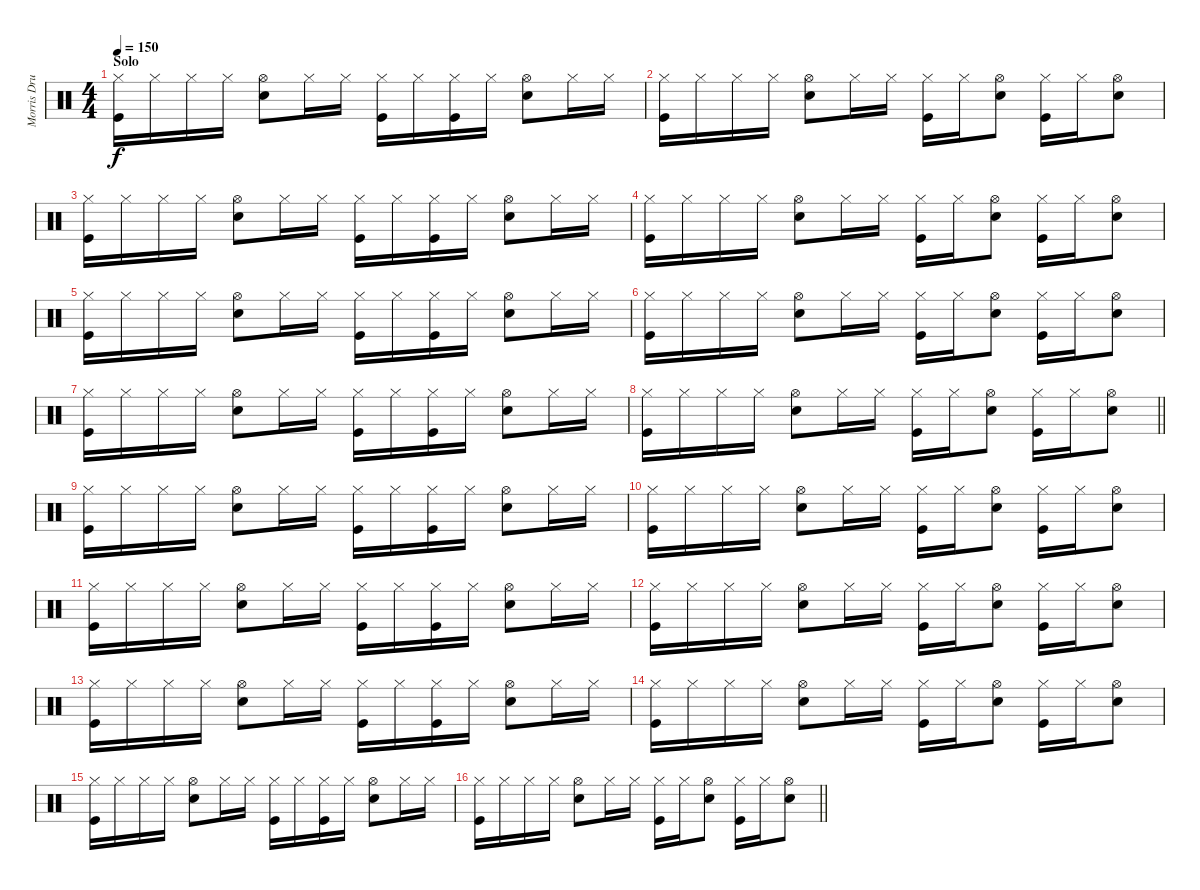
\track ("Morris Drums" "Morris Dru") {instrument percussion}
\staff {score}
\articulation defaults
\ts (4 4)
\section ("" "Solo")
\tempo 150
\clef neutral
\ks c
("Hi-Hat (closed)" "Kick (hit)").16{dy f} "Hi-Hat (closed)".16 "Hi-Hat (closed)".16 "Hi-Hat (closed)".16 ("Hi-Hat (open)" "Snare (hit) 2").8 "Hi-Hat (closed)".16 "Hi-Hat (closed)".16 ("Hi-Hat (closed)" "Kick (hit)").16 "Hi-Hat (closed)".16 ("Hi-Hat (closed)" "Kick (hit)").16 "Hi-Hat (closed)".16 ("Hi-Hat (open)" "Snare (hit) 2").8 "Hi-Hat (closed)".16 "Hi-Hat (closed)".16 |
("Hi-Hat (closed)" "Kick (hit)").16 "Hi-Hat (closed)".16 "Hi-Hat (closed)".16 "Hi-Hat (closed)".16 ("Hi-Hat (open)" "Snare (hit) 2").8 "Hi-Hat (closed)".16 "Hi-Hat (closed)".16 ("Hi-Hat (closed)" "Kick (hit)").16 "Hi-Hat (closed)".16 ("Hi-Hat (open)" "Snare (hit) 2").8 ("Hi-Hat (closed)" "Kick (hit)").16 "Hi-Hat (closed)".16 ("Hi-Hat (open)" "Snare (hit) 2").8 |
("Hi-Hat (closed)" "Kick (hit)").16 "Hi-Hat (closed)".16 "Hi-Hat (closed)".16 "Hi-Hat (closed)".16 ("Hi-Hat (open)" "Snare (hit) 2").8 "Hi-Hat (closed)".16 "Hi-Hat (closed)".16 ("Hi-Hat (closed)" "Kick (hit)").16 "Hi-Hat (closed)".16 ("Hi-Hat (closed)" "Kick (hit)").16 "Hi-Hat (closed)".16 ("Hi-Hat (open)" "Snare (hit) 2").8 "Hi-Hat (closed)".16 "Hi-Hat (closed)".16 |
("Hi-Hat (closed)" "Kick (hit)").16 "Hi-Hat (closed)".16 "Hi-Hat (closed)".16 "Hi-Hat (closed)".16 ("Hi-Hat (open)" "Snare (hit) 2").8 "Hi-Hat (closed)".16 "Hi-Hat (closed)".16 ("Hi-Hat (closed)" "Kick (hit)").16 "Hi-Hat (closed)".16 ("Hi-Hat (open)" "Snare (hit) 2").8 ("Hi-Hat (closed)" "Kick (hit)").16 "Hi-Hat (closed)".16 ("Hi-Hat (open)" "Snare (hit) 2").8 |
("Hi-Hat (closed)" "Kick (hit)").16 "Hi-Hat (closed)".16 "Hi-Hat (closed)".16 "Hi-Hat (closed)".16 ("Hi-Hat (open)" "Snare (hit) 2").8 "Hi-Hat (closed)".16 "Hi-Hat (closed)".16 ("Hi-Hat (closed)" "Kick (hit)").16 "Hi-Hat (closed)".16 ("Hi-Hat (closed)" "Kick (hit)").16 "Hi-Hat (closed)".16 ("Hi-Hat (open)" "Snare (hit) 2").8 "Hi-Hat (closed)".16 "Hi-Hat (closed)".16 |
("Hi-Hat (closed)" "Kick (hit)").16 "Hi-Hat (closed)".16 "Hi-Hat (closed)".16 "Hi-Hat (closed)".16 ("Hi-Hat (open)" "Snare (hit) 2").8 "Hi-Hat (closed)".16 "Hi-Hat (closed)".16 ("Hi-Hat (closed)" "Kick (hit)").16 "Hi-Hat (closed)".16 ("Hi-Hat (open)" "Snare (hit) 2").8 ("Hi-Hat (closed)" "Kick (hit)").16 "Hi-Hat (closed)".16 ("Hi-Hat (open)" "Snare (hit) 2").8 |
("Hi-Hat (closed)" "Kick (hit)").16 "Hi-Hat (closed)".16 "Hi-Hat (closed)".16 "Hi-Hat (closed)".16 ("Hi-Hat (open)" "Snare (hit) 2").8 "Hi-Hat (closed)".16 "Hi-Hat (closed)".16 ("Hi-Hat (closed)" "Kick (hit)").16 "Hi-Hat (closed)".16 ("Hi-Hat (closed)" "Kick (hit)").16 "Hi-Hat (closed)".16 ("Hi-Hat (open)" "Snare (hit) 2").8 "Hi-Hat (closed)".16 "Hi-Hat (closed)".16 |
\barLineRight lightlight
("Hi-Hat (closed)" "Kick (hit)").16 "Hi-Hat (closed)".16 "Hi-Hat (closed)".16 "Hi-Hat (closed)".16 ("Hi-Hat (open)" "Snare (hit) 2").8 "Hi-Hat (closed)".16 "Hi-Hat (closed)".16 ("Hi-Hat (closed)" "Kick (hit)").16 "Hi-Hat (closed)".16 ("Hi-Hat (open)" "Snare (hit) 2").8 ("Hi-Hat (closed)" "Kick (hit)").16 "Hi-Hat (closed)".16 ("Hi-Hat (open)" "Snare (hit) 2").8 |
("Hi-Hat (closed)" "Kick (hit)").16 "Hi-Hat (closed)".16 "Hi-Hat (closed)".16 "Hi-Hat (closed)".16 ("Hi-Hat (open)" "Snare (hit) 2").8 "Hi-Hat (closed)".16 "Hi-Hat (closed)".16 ("Hi-Hat (closed)" "Kick (hit)").16 "Hi-Hat (closed)".16 ("Hi-Hat (closed)" "Kick (hit)").16 "Hi-Hat (closed)".16 ("Hi-Hat (open)" "Snare (hit) 2").8 "Hi-Hat (closed)".16 "Hi-Hat (closed)".16 |
("Hi-Hat (closed)" "Kick (hit)").16 "Hi-Hat (closed)".16 "Hi-Hat (closed)".16 "Hi-Hat (closed)".16 ("Hi-Hat (open)" "Snare (hit) 2").8 "Hi-Hat (closed)".16 "Hi-Hat (closed)".16 ("Hi-Hat (closed)" "Kick (hit)").16 "Hi-Hat (closed)".16 ("Hi-Hat (open)" "Snare (hit) 2").8 ("Hi-Hat (closed)" "Kick (hit)").16 "Hi-Hat (closed)".16 ("Hi-Hat (open)" "Snare (hit) 2").8 |
("Hi-Hat (closed)" "Kick (hit)").16 "Hi-Hat (closed)".16 "Hi-Hat (closed)".16 "Hi-Hat (closed)".16 ("Hi-Hat (open)" "Snare (hit) 2").8 "Hi-Hat (closed)".16 "Hi-Hat (closed)".16 ("Hi-Hat (closed)" "Kick (hit)").16 "Hi-Hat (closed)".16 ("Hi-Hat (closed)" "Kick (hit)").16 "Hi-Hat (closed)".16 ("Hi-Hat (open)" "Snare (hit) 2").8 "Hi-Hat (closed)".16 "Hi-Hat (closed)".16 |
("Hi-Hat (closed)" "Kick (hit)").16 "Hi-Hat (closed)".16 "Hi-Hat (closed)".16 "Hi-Hat (closed)".16 ("Hi-Hat (open)" "Snare (hit) 2").8 "Hi-Hat (closed)".16 "Hi-Hat (closed)".16 ("Hi-Hat (closed)" "Kick (hit)").16 "Hi-Hat (closed)".16 ("Hi-Hat (open)" "Snare (hit) 2").8 ("Hi-Hat (closed)" "Kick (hit)").16 "Hi-Hat (closed)".16 ("Hi-Hat (open)" "Snare (hit) 2").8 |
("Hi-Hat (closed)" "Kick (hit)").16 "Hi-Hat (closed)".16 "Hi-Hat (closed)".16 "Hi-Hat (closed)".16 ("Hi-Hat (open)" "Snare (hit) 2").8 "Hi-Hat (closed)".16 "Hi-Hat (closed)".16 ("Hi-Hat (closed)" "Kick (hit)").16 "Hi-Hat (closed)".16 ("Hi-Hat (closed)" "Kick (hit)").16 "Hi-Hat (closed)".16 ("Hi-Hat (open)" "Snare (hit) 2").8 "Hi-Hat (closed)".16 "Hi-Hat (closed)".16 |
("Hi-Hat (closed)" "Kick (hit)").16 "Hi-Hat (closed)".16 "Hi-Hat (closed)".16 "Hi-Hat (closed)".16 ("Hi-Hat (open)" "Snare (hit) 2").8 "Hi-Hat (closed)".16 "Hi-Hat (closed)".16 ("Hi-Hat (closed)" "Kick (hit)").16 "Hi-Hat (closed)".16 ("Hi-Hat (open)" "Snare (hit) 2").8 ("Hi-Hat (closed)" "Kick (hit)").16 "Hi-Hat (closed)".16 ("Hi-Hat (open)" "Snare (hit) 2").8 |
("Hi-Hat (closed)" "Kick (hit)").16 "Hi-Hat (closed)".16 "Hi-Hat (closed)".16 "Hi-Hat (closed)".16 ("Hi-Hat (open)" "Snare (hit) 2").8 "Hi-Hat (closed)".16 "Hi-Hat (closed)".16 ("Hi-Hat (closed)" "Kick (hit)").16 "Hi-Hat (closed)".16 ("Hi-Hat (closed)" "Kick (hit)").16 "Hi-Hat (closed)".16 ("Hi-Hat (open)" "Snare (hit) 2").8 "Hi-Hat (closed)".16 "Hi-Hat (closed)".16 |
\barLineRight lightlight
("Hi-Hat (closed)" "Kick (hit)").16 "Hi-Hat (closed)".16 "Hi-Hat (closed)".16 "Hi-Hat (closed)".16 ("Hi-Hat (open)" "Snare (hit) 2").8 "Hi-Hat (closed)".16 "Hi-Hat (closed)".16 ("Hi-Hat (closed)" "Kick (hit)").16 "Hi-Hat (closed)".16 ("Hi-Hat (open)" "Snare (hit) 2").8 ("Hi-Hat (closed)" "Kick (hit)").16 "Hi-Hat (closed)".16 ("Hi-Hat (open)" "Snare (hit) 2").8
